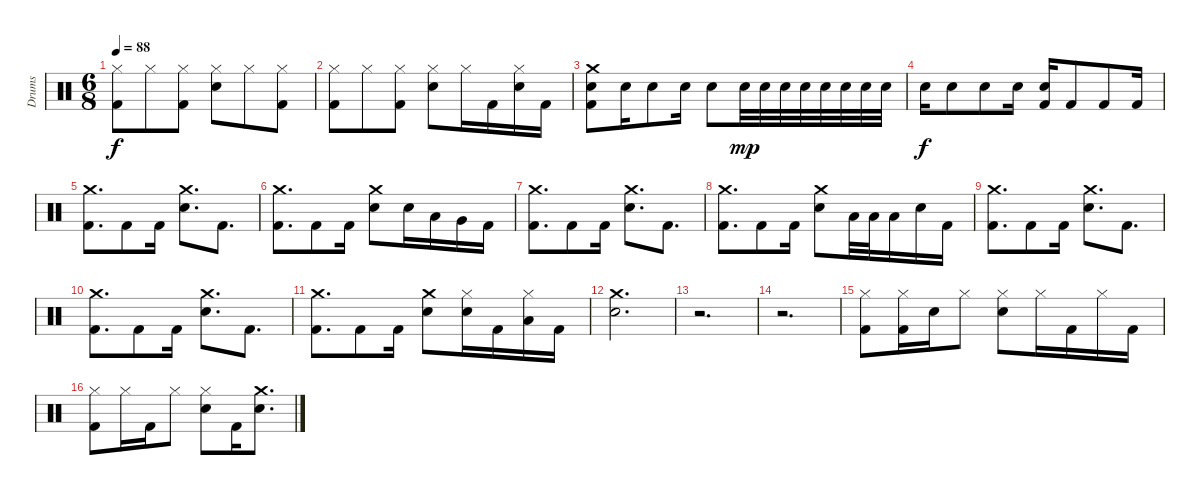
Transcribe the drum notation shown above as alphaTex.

\track ("Drums" "Drums") {instrument percussion}
\staff {score}
\articulation defaults
\ts (6 8)
\tempo 88
\clef neutral
\ks c
("Hi-Hat (closed)" "Kick (hit) 2").8{dy f} "Hi-Hat (closed)".8 ("Hi-Hat (closed)" "Kick (hit) 2").8 ("Hi-Hat (closed)" "Electric Snare (hit)").8 "Hi-Hat (closed)".8 ("Hi-Hat (closed)" "Kick (hit) 2").8 |
("Hi-Hat (closed)" "Kick (hit) 2").8 "Hi-Hat (closed)".8 ("Hi-Hat (closed)" "Kick (hit) 2").8 ("Hi-Hat (closed)" "Electric Snare (hit)").8 "Hi-Hat (closed)".16 "Kick (hit) 2".16 ("Hi-Hat (closed)" "Electric Snare (hit)").16 "Kick (hit) 2".16 |
("Crash medium (hit)" "Electric Snare (hit)" "Kick (hit) 2").8 "Electric Snare (hit)".16 "Electric Snare (hit)".8 "Electric Snare (hit)".16 "Electric Snare (hit)".8 "Electric Snare (hit)".32{dy mp} "Electric Snare (hit)".32 "Electric Snare (hit)".32 "Electric Snare (hit)".32 "Electric Snare (hit)".32 "Electric Snare (hit)".32 "Electric Snare (hit)".32 "Electric Snare (hit)".32 |
"Electric Snare (hit)".16{dy f} "Electric Snare (hit)".8 "Electric Snare (hit)".8 "Electric Snare (hit)".16 ("Electric Snare (hit)" "Kick (hit) 2").16 "Kick (hit) 2".8 "Kick (hit) 2".8 "Kick (hit) 2".16 |
("Crash medium (hit)" "Kick (hit) 2").8{d} "Kick (hit) 2".8 "Kick (hit) 2".16 ("Crash medium (hit)" "Electric Snare (hit)").8{d} "Kick (hit) 2".8{d} |
("Crash medium (hit)" "Kick (hit) 2").8{d} "Kick (hit) 2".8 "Kick (hit) 2".16 ("Crash medium (hit)" "Electric Snare (hit)").8 "Electric Snare (hit)".16 "Low Tom (hit)".16 "Very Low Tom (hit)".16 "Kick (hit) 2".16 |
("Crash medium (hit)" "Kick (hit) 2").8{d} "Kick (hit) 2".8 "Kick (hit) 2".16 ("Crash medium (hit)" "Electric Snare (hit)").8{d} "Kick (hit) 2".8{d} |
("Crash medium (hit)" "Kick (hit) 2").8{d} "Kick (hit) 2".8 "Kick (hit) 2".16 ("Crash medium (hit)" "Electric Snare (hit)").8 "Low Tom (hit)".32 "Low Tom (hit)".32 "Low Tom (hit)".16 "Electric Snare (hit)".16 "Kick (hit) 2".16 |
("Crash medium (hit)" "Kick (hit) 2").8{d} "Kick (hit) 2".8 "Kick (hit) 2".16 ("Crash medium (hit)" "Electric Snare (hit)").8{d} "Kick (hit) 2".8{d} |
("Crash medium (hit)" "Kick (hit) 2").8{d} "Kick (hit) 2".8 "Kick (hit) 2".16 ("Crash medium (hit)" "Electric Snare (hit)").8{d} "Kick (hit) 2".8{d} |
("Crash medium (hit)" "Kick (hit) 2").8{d} "Kick (hit) 2".8 "Kick (hit) 2".16 ("Crash medium (hit)" "Electric Snare (hit)").8 ("Hi-Hat (closed)" "Electric Snare (hit)").16 "Kick (hit) 2".16 ("Hi-Hat (closed)" "Low Tom (hit)").16 "Kick (hit) 2".16 |
("Crash medium (hit)" "Electric Snare (hit)").2{d} |
r.2{d} |
r.2{d} |
("Hi-Hat (closed)" "Kick (hit) 2").8 ("Hi-Hat (closed)" "Kick (hit) 2").16 "Electric Snare (hit)".16 "Hi-Hat (closed)".8 ("Hi-Hat (closed)" "Electric Snare (hit)").8 "Hi-Hat (closed)".16 "Kick (hit) 2".16 "Hi-Hat (closed)".16 "Kick (hit) 2".16 |
("Hi-Hat (closed)" "Kick (hit) 2").8 "Hi-Hat (closed)".16 "Kick (hit) 2".16 "Hi-Hat (closed)".8 ("Hi-Hat (closed)" "Electric Snare (hit)").8 "Kick (hit) 2".16 ("Crash medium (hit)" "Electric Snare (hit)").8{d}
